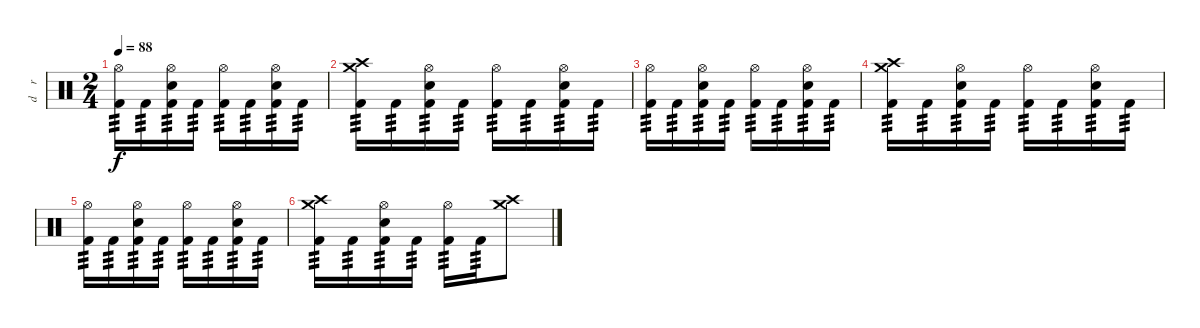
\track ("d    r     u    m    s" "d    r    ") {instrument percussion}
\staff {score}
\articulation defaults
\ts (2 4)
\tempo 88
\clef neutral
\ks c
("Hi-Hat (open)" "Kick (hit) 2").16{tp 3 dy f} "Kick (hit) 2".16{tp 3} ("Hi-Hat (open)" "Electric Snare (hit)" "Kick (hit) 2").16{tp 3} "Kick (hit) 2".16{tp 3} ("Hi-Hat (open)" "Kick (hit) 2").16{tp 3} "Kick (hit) 2".16{tp 3} ("Hi-Hat (open)" "Electric Snare (hit)" "Kick (hit) 2").16{tp 3} "Kick (hit) 2".16{tp 3} |
("Crash high (hit)" "Crash medium (hit)" "Kick (hit) 2").16{tp 3} "Kick (hit) 2".16{tp 3} ("Hi-Hat (open)" "Electric Snare (hit)" "Kick (hit) 2").16{tp 3} "Kick (hit) 2".16{tp 3} ("Hi-Hat (open)" "Kick (hit) 2").16{tp 3} "Kick (hit) 2".16{tp 3} ("Hi-Hat (open)" "Electric Snare (hit)" "Kick (hit) 2").16{tp 3} "Kick (hit) 2".16{tp 3} |
("Hi-Hat (open)" "Kick (hit) 2").16{tp 3} "Kick (hit) 2".16{tp 3} ("Hi-Hat (open)" "Electric Snare (hit)" "Kick (hit) 2").16{tp 3} "Kick (hit) 2".16{tp 3} ("Hi-Hat (open)" "Kick (hit) 2").16{tp 3} "Kick (hit) 2".16{tp 3} ("Hi-Hat (open)" "Electric Snare (hit)" "Kick (hit) 2").16{tp 3} "Kick (hit) 2".16{tp 3} |
("Crash high (hit)" "Crash medium (hit)" "Kick (hit) 2").16{tp 3} "Kick (hit) 2".16{tp 3} ("Hi-Hat (open)" "Electric Snare (hit)" "Kick (hit) 2").16{tp 3} "Kick (hit) 2".16{tp 3} ("Hi-Hat (open)" "Kick (hit) 2").16{tp 3} "Kick (hit) 2".16{tp 3} ("Hi-Hat (open)" "Electric Snare (hit)" "Kick (hit) 2").16{tp 3} "Kick (hit) 2".16{tp 3} |
("Hi-Hat (open)" "Kick (hit) 2").16{tp 3} "Kick (hit) 2".16{tp 3} ("Hi-Hat (open)" "Electric Snare (hit)" "Kick (hit) 2").16{tp 3} "Kick (hit) 2".16{tp 3} ("Hi-Hat (open)" "Kick (hit) 2").16{tp 3} "Kick (hit) 2".16{tp 3} ("Hi-Hat (open)" "Electric Snare (hit)" "Kick (hit) 2").16{tp 3} "Kick (hit) 2".16{tp 3} |
("Crash high (hit)" "Crash medium (hit)" "Kick (hit) 2").16{tp 3} "Kick (hit) 2".16{tp 3} ("Hi-Hat (open)" "Electric Snare (hit)" "Kick (hit) 2").16{tp 3} "Kick (hit) 2".16{tp 3} ("Hi-Hat (open)" "Kick (hit) 2").16{tp 3} "Kick (hit) 2".16{tp 3} ("Crash high (hit)" "Crash medium (hit)").8
